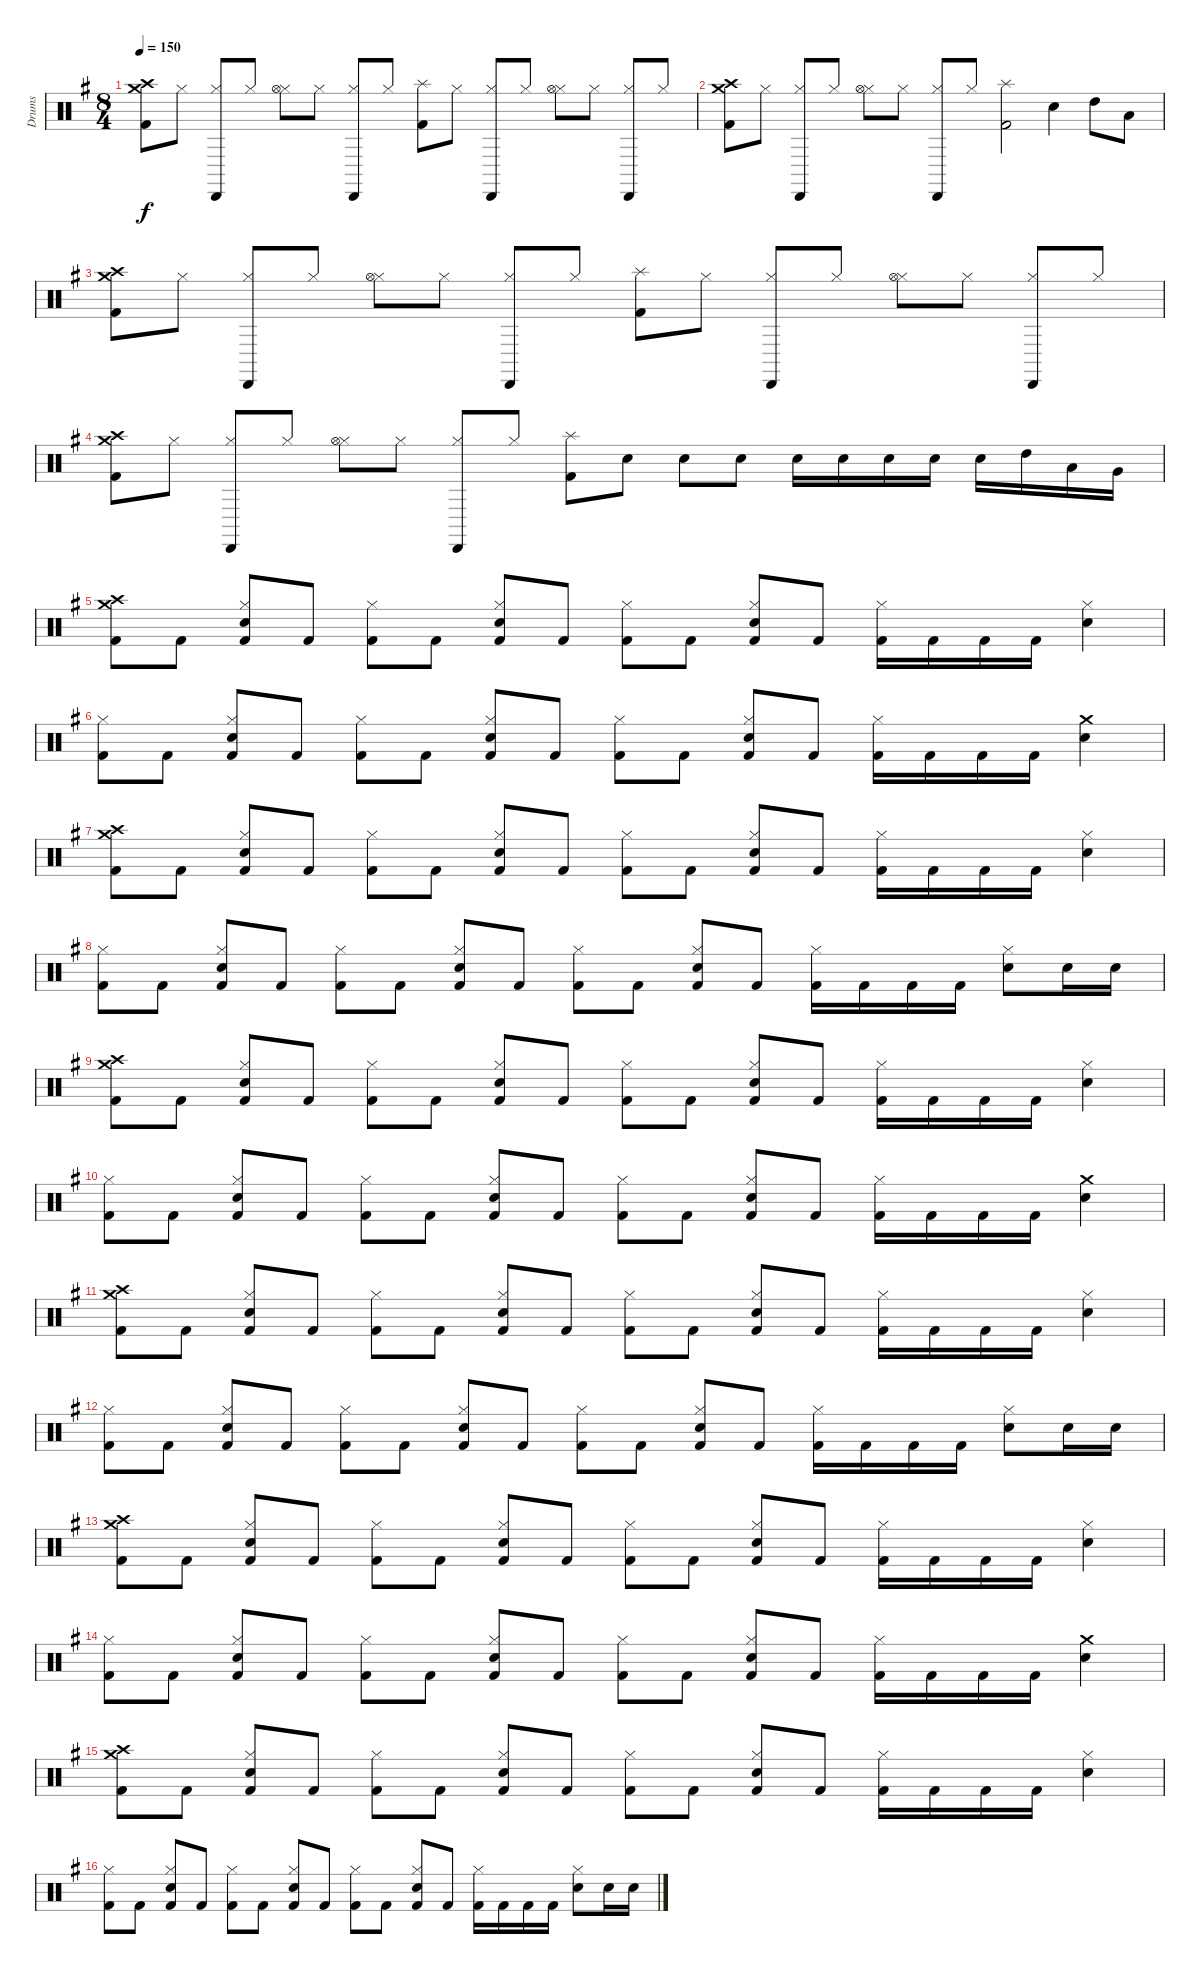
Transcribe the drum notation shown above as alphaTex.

\track ("Drums" "Drums") {instrument percussion}
\staff {score}
\articulation defaults
\ts (8 4)
\tempo 150
\clef neutral
\ks g
("Crash medium (hit)" "Crash high (hit)" "Kick (hit) 2").8{dy f} "Hi-Hat (closed)".8 ("Hi-Hat (closed)" "Cabasa (hit)").8 "Hi-Hat (closed)".8 ("Hi-Hat (closed)" "Hi-Hat (open)").8 "Hi-Hat (closed)".8 ("Hi-Hat (closed)" "Cabasa (hit)").8 "Hi-Hat (closed)".8 ("Splash (hit)" "Kick (hit) 2").8 "Hi-Hat (closed)".8 ("Hi-Hat (closed)" "Cabasa (hit)").8 "Hi-Hat (closed)".8 ("Hi-Hat (closed)" "Hi-Hat (open)").8 "Hi-Hat (closed)".8 ("Hi-Hat (closed)" "Cabasa (hit)").8 "Hi-Hat (closed)".8 |
("Crash medium (hit)" "Crash high (hit)" "Kick (hit) 2").8 "Hi-Hat (closed)".8 ("Hi-Hat (closed)" "Cabasa (hit)").8 "Hi-Hat (closed)".8 ("Hi-Hat (closed)" "Hi-Hat (open)").8 "Hi-Hat (closed)".8 ("Hi-Hat (closed)" "Cabasa (hit)").8 "Hi-Hat (closed)".8 ("Splash (hit)" "Kick (hit) 2").2 "Snare (hit) 2".4 "High Tom (hit)".8 "Low Tom (hit)".8 |
("Crash medium (hit)" "Crash high (hit)" "Kick (hit) 2").8 "Hi-Hat (closed)".8 ("Hi-Hat (closed)" "Cabasa (hit)").8 "Hi-Hat (closed)".8 ("Hi-Hat (closed)" "Hi-Hat (open)").8 "Hi-Hat (closed)".8 ("Hi-Hat (closed)" "Cabasa (hit)").8 "Hi-Hat (closed)".8 ("Splash (hit)" "Kick (hit) 2").8 "Hi-Hat (closed)".8 ("Hi-Hat (closed)" "Cabasa (hit)").8 "Hi-Hat (closed)".8 ("Hi-Hat (closed)" "Hi-Hat (open)").8 "Hi-Hat (closed)".8 ("Hi-Hat (closed)" "Cabasa (hit)").8 "Hi-Hat (closed)".8 |
("Crash medium (hit)" "Crash high (hit)" "Kick (hit) 2").8 "Hi-Hat (closed)".8 ("Hi-Hat (closed)" "Cabasa (hit)").8 "Hi-Hat (closed)".8 ("Hi-Hat (closed)" "Hi-Hat (open)").8 "Hi-Hat (closed)".8 ("Hi-Hat (closed)" "Cabasa (hit)").8 "Hi-Hat (closed)".8 ("Splash (hit)" "Kick (hit) 2").8 "Snare (hit) 2".8 "Snare (hit) 2".8 "Snare (hit) 2".8 "Snare (hit) 2".16 "Snare (hit) 2".16 "Snare (hit) 2".16 "Snare (hit) 2".16 "Snare (hit) 2".16 "High Tom (hit)".16 "Low Tom (hit)".16 "Very Low Tom (hit)".16 |
("Crash medium (hit)" "Crash high (hit)" "Kick (hit) 2").8 "Kick (hit) 2".8 ("Hi-Hat (closed)" "Snare (hit) 2" "Kick (hit) 2").8 "Kick (hit) 2".8 ("Hi-Hat (closed)" "Kick (hit) 2").8 "Kick (hit) 2".8 ("Hi-Hat (closed)" "Snare (hit) 2" "Kick (hit) 2").8 "Kick (hit) 2".8 ("Hi-Hat (closed)" "Kick (hit) 2").8 "Kick (hit) 2".8 ("Hi-Hat (closed)" "Snare (hit) 2" "Kick (hit) 2").8 "Kick (hit) 2".8 ("Hi-Hat (closed)" "Kick (hit) 2").16 "Kick (hit) 2".16 "Kick (hit) 2".16 "Kick (hit) 2".16 ("Hi-Hat (closed)" "Snare (hit) 2").4 |
("Hi-Hat (closed)" "Kick (hit) 2").8 "Kick (hit) 2".8 ("Hi-Hat (closed)" "Snare (hit) 2" "Kick (hit) 2").8 "Kick (hit) 2".8 ("Hi-Hat (closed)" "Kick (hit) 2").8 "Kick (hit) 2".8 ("Hi-Hat (closed)" "Snare (hit) 2" "Kick (hit) 2").8 "Kick (hit) 2".8 ("Hi-Hat (closed)" "Kick (hit) 2").8 "Kick (hit) 2".8 ("Hi-Hat (closed)" "Snare (hit) 2" "Kick (hit) 2").8 "Kick (hit) 2".8 ("Hi-Hat (closed)" "Kick (hit) 2").16 "Kick (hit) 2".16 "Kick (hit) 2".16 "Kick (hit) 2".16 ("Crash medium (hit)" "Snare (hit) 2").4 |
("Crash medium (hit)" "Crash high (hit)" "Kick (hit) 2").8 "Kick (hit) 2".8 ("Hi-Hat (closed)" "Snare (hit) 2" "Kick (hit) 2").8 "Kick (hit) 2".8 ("Hi-Hat (closed)" "Kick (hit) 2").8 "Kick (hit) 2".8 ("Hi-Hat (closed)" "Snare (hit) 2" "Kick (hit) 2").8 "Kick (hit) 2".8 ("Hi-Hat (closed)" "Kick (hit) 2").8 "Kick (hit) 2".8 ("Hi-Hat (closed)" "Snare (hit) 2" "Kick (hit) 2").8 "Kick (hit) 2".8 ("Hi-Hat (closed)" "Kick (hit) 2").16 "Kick (hit) 2".16 "Kick (hit) 2".16 "Kick (hit) 2".16 ("Hi-Hat (closed)" "Snare (hit) 2").4 |
("Hi-Hat (closed)" "Kick (hit) 2").8 "Kick (hit) 2".8 ("Hi-Hat (closed)" "Snare (hit) 2" "Kick (hit) 2").8 "Kick (hit) 2".8 ("Hi-Hat (closed)" "Kick (hit) 2").8 "Kick (hit) 2".8 ("Hi-Hat (closed)" "Snare (hit) 2" "Kick (hit) 2").8 "Kick (hit) 2".8 ("Hi-Hat (closed)" "Kick (hit) 2").8 "Kick (hit) 2".8 ("Hi-Hat (closed)" "Snare (hit) 2" "Kick (hit) 2").8 "Kick (hit) 2".8 ("Hi-Hat (closed)" "Kick (hit) 2").16 "Kick (hit) 2".16 "Kick (hit) 2".16 "Kick (hit) 2".16 ("Hi-Hat (closed)" "Snare (hit) 2").8 "Snare (hit) 2".16 "Snare (hit) 2".16 |
("Crash medium (hit)" "Crash high (hit)" "Kick (hit) 2").8 "Kick (hit) 2".8 ("Hi-Hat (closed)" "Snare (hit) 2" "Kick (hit) 2").8 "Kick (hit) 2".8 ("Hi-Hat (closed)" "Kick (hit) 2").8 "Kick (hit) 2".8 ("Hi-Hat (closed)" "Snare (hit) 2" "Kick (hit) 2").8 "Kick (hit) 2".8 ("Hi-Hat (closed)" "Kick (hit) 2").8 "Kick (hit) 2".8 ("Hi-Hat (closed)" "Snare (hit) 2" "Kick (hit) 2").8 "Kick (hit) 2".8 ("Hi-Hat (closed)" "Kick (hit) 2").16 "Kick (hit) 2".16 "Kick (hit) 2".16 "Kick (hit) 2".16 ("Hi-Hat (closed)" "Snare (hit) 2").4 |
("Hi-Hat (closed)" "Kick (hit) 2").8 "Kick (hit) 2".8 ("Hi-Hat (closed)" "Snare (hit) 2" "Kick (hit) 2").8 "Kick (hit) 2".8 ("Hi-Hat (closed)" "Kick (hit) 2").8 "Kick (hit) 2".8 ("Hi-Hat (closed)" "Snare (hit) 2" "Kick (hit) 2").8 "Kick (hit) 2".8 ("Hi-Hat (closed)" "Kick (hit) 2").8 "Kick (hit) 2".8 ("Hi-Hat (closed)" "Snare (hit) 2" "Kick (hit) 2").8 "Kick (hit) 2".8 ("Hi-Hat (closed)" "Kick (hit) 2").16 "Kick (hit) 2".16 "Kick (hit) 2".16 "Kick (hit) 2".16 ("Crash medium (hit)" "Snare (hit) 2").4 |
("Crash medium (hit)" "Crash high (hit)" "Kick (hit) 2").8 "Kick (hit) 2".8 ("Hi-Hat (closed)" "Snare (hit) 2" "Kick (hit) 2").8 "Kick (hit) 2".8 ("Hi-Hat (closed)" "Kick (hit) 2").8 "Kick (hit) 2".8 ("Hi-Hat (closed)" "Snare (hit) 2" "Kick (hit) 2").8 "Kick (hit) 2".8 ("Hi-Hat (closed)" "Kick (hit) 2").8 "Kick (hit) 2".8 ("Hi-Hat (closed)" "Snare (hit) 2" "Kick (hit) 2").8 "Kick (hit) 2".8 ("Hi-Hat (closed)" "Kick (hit) 2").16 "Kick (hit) 2".16 "Kick (hit) 2".16 "Kick (hit) 2".16 ("Hi-Hat (closed)" "Snare (hit) 2").4 |
("Hi-Hat (closed)" "Kick (hit) 2").8 "Kick (hit) 2".8 ("Hi-Hat (closed)" "Snare (hit) 2" "Kick (hit) 2").8 "Kick (hit) 2".8 ("Hi-Hat (closed)" "Kick (hit) 2").8 "Kick (hit) 2".8 ("Hi-Hat (closed)" "Snare (hit) 2" "Kick (hit) 2").8 "Kick (hit) 2".8 ("Hi-Hat (closed)" "Kick (hit) 2").8 "Kick (hit) 2".8 ("Hi-Hat (closed)" "Snare (hit) 2" "Kick (hit) 2").8 "Kick (hit) 2".8 ("Hi-Hat (closed)" "Kick (hit) 2").16 "Kick (hit) 2".16 "Kick (hit) 2".16 "Kick (hit) 2".16 ("Hi-Hat (closed)" "Snare (hit) 2").8 "Snare (hit) 2".16 "Snare (hit) 2".16 |
("Crash medium (hit)" "Crash high (hit)" "Kick (hit) 2").8 "Kick (hit) 2".8 ("Hi-Hat (closed)" "Snare (hit) 2" "Kick (hit) 2").8 "Kick (hit) 2".8 ("Hi-Hat (closed)" "Kick (hit) 2").8 "Kick (hit) 2".8 ("Hi-Hat (closed)" "Snare (hit) 2" "Kick (hit) 2").8 "Kick (hit) 2".8 ("Hi-Hat (closed)" "Kick (hit) 2").8 "Kick (hit) 2".8 ("Hi-Hat (closed)" "Snare (hit) 2" "Kick (hit) 2").8 "Kick (hit) 2".8 ("Hi-Hat (closed)" "Kick (hit) 2").16 "Kick (hit) 2".16 "Kick (hit) 2".16 "Kick (hit) 2".16 ("Hi-Hat (closed)" "Snare (hit) 2").4 |
("Hi-Hat (closed)" "Kick (hit) 2").8 "Kick (hit) 2".8 ("Hi-Hat (closed)" "Snare (hit) 2" "Kick (hit) 2").8 "Kick (hit) 2".8 ("Hi-Hat (closed)" "Kick (hit) 2").8 "Kick (hit) 2".8 ("Hi-Hat (closed)" "Snare (hit) 2" "Kick (hit) 2").8 "Kick (hit) 2".8 ("Hi-Hat (closed)" "Kick (hit) 2").8 "Kick (hit) 2".8 ("Hi-Hat (closed)" "Snare (hit) 2" "Kick (hit) 2").8 "Kick (hit) 2".8 ("Hi-Hat (closed)" "Kick (hit) 2").16 "Kick (hit) 2".16 "Kick (hit) 2".16 "Kick (hit) 2".16 ("Crash medium (hit)" "Snare (hit) 2").4 |
("Crash medium (hit)" "Crash high (hit)" "Kick (hit) 2").8 "Kick (hit) 2".8 ("Hi-Hat (closed)" "Snare (hit) 2" "Kick (hit) 2").8 "Kick (hit) 2".8 ("Hi-Hat (closed)" "Kick (hit) 2").8 "Kick (hit) 2".8 ("Hi-Hat (closed)" "Snare (hit) 2" "Kick (hit) 2").8 "Kick (hit) 2".8 ("Hi-Hat (closed)" "Kick (hit) 2").8 "Kick (hit) 2".8 ("Hi-Hat (closed)" "Snare (hit) 2" "Kick (hit) 2").8 "Kick (hit) 2".8 ("Hi-Hat (closed)" "Kick (hit) 2").16 "Kick (hit) 2".16 "Kick (hit) 2".16 "Kick (hit) 2".16 ("Hi-Hat (closed)" "Snare (hit) 2").4 |
("Hi-Hat (closed)" "Kick (hit) 2").8 "Kick (hit) 2".8 ("Hi-Hat (closed)" "Snare (hit) 2" "Kick (hit) 2").8 "Kick (hit) 2".8 ("Hi-Hat (closed)" "Kick (hit) 2").8 "Kick (hit) 2".8 ("Hi-Hat (closed)" "Snare (hit) 2" "Kick (hit) 2").8 "Kick (hit) 2".8 ("Hi-Hat (closed)" "Kick (hit) 2").8 "Kick (hit) 2".8 ("Hi-Hat (closed)" "Snare (hit) 2" "Kick (hit) 2").8 "Kick (hit) 2".8 ("Hi-Hat (closed)" "Kick (hit) 2").16 "Kick (hit) 2".16 "Kick (hit) 2".16 "Kick (hit) 2".16 ("Hi-Hat (closed)" "Snare (hit) 2").8 "Snare (hit) 2".16 "Snare (hit) 2".16
